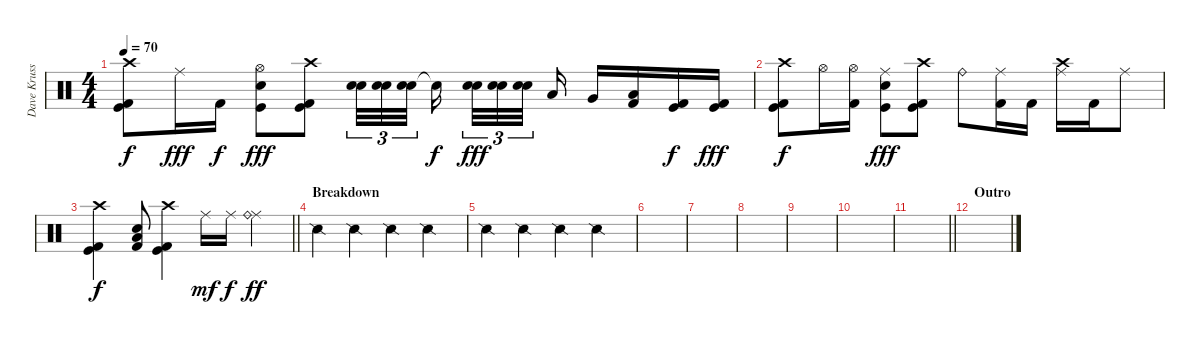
\track ("Dave Krussen" "Dave Kruss") {instrument percussion}
\staff {score}
\articulation defaults
\ts (4 4)
\tempo 70
\clef neutral
\ks c
("Crash high (hit)" "Kick (hit)" "Kick (hit) 2").8{dy f} "Ride (middle)".16{dy fff} "Kick (hit) 2".16{dy f} ("Hi-Hat (open)" "Electric Snare (hit)" "Kick (hit)").8{dy fff} ("Crash high (hit)" "Kick (hit)" "Kick (hit) 2").8 ("Snare (hit) 2" "Electric Snare (hit)").32{tu (3 2)} ("Snare (hit) 2" "Electric Snare (hit)").32{tu (3 2)} ("Snare (hit) 2" "Electric Snare (hit)").32{tu (3 2) beam splitsecondary} "Electric Snare (hit)"{t}.16{dy f beam splitsecondary} ("Snare (hit) 2" "Electric Snare (hit)").32{tu (3 2) dy fff} ("Snare (hit) 2" "Electric Snare (hit)").32{tu (3 2)} ("Snare (hit) 2" "Electric Snare (hit)").32{tu (3 2) beam splitsecondary} "Low Tom (hit)".16 "Very Low Tom (hit)".16 ("Low Floor Tom (hit)" "Kick (hit) 2").16 ("Kick (hit)" "Kick (hit) 2").16{dy f} ("Kick (hit)" "Kick (hit) 2").16{dy fff} |
("Crash high (hit)" "Kick (hit)" "Kick (hit) 2").8{dy f} "Hi-Hat (open)".16 ("Hi-Hat (open)" "Kick (hit) 2").16 ("Ride (middle)" "Electric Snare (hit)" "Kick (hit)").8{dy fff} ("Crash high (hit)" "Kick (hit)" "Kick (hit) 2").8 "Ride (bell)".8 ("Ride (middle)" "Kick (hit) 2").16 "Kick (hit) 2".16 ("Ride (middle)" "Crash high (hit)").16 "Kick (hit) 2".16 "Ride (middle)".8 |
\barLineRight lightlight
("Crash high (hit)" "Kick (hit)" "Kick (hit) 2").4{dy f} ("Electric Snare (hit)" "Low Floor Tom (hit)" "Kick (hit) 2").8{bd 120} ("Crash high (hit)" "Kick (hit)" "Kick (hit) 2").4 "Ride (middle)".16{dy mf} "Ride (middle)".16{dy f} ("Ride (middle)" "Ride (bell)").4{dy ff} |
\section ("" "Breakdown")
"Snare (side stick) 2".4 "Snare (side stick) 2".4 "Snare (side stick) 2".4 "Snare (side stick) 2".4 |
"Snare (side stick) 2".4 "Snare (side stick) 2".4 "Snare (side stick) 2".4 "Snare (side stick) 2".4 |
|
|
|
|
|
\barLineRight lightlight
|
\section ("" "Outro")
